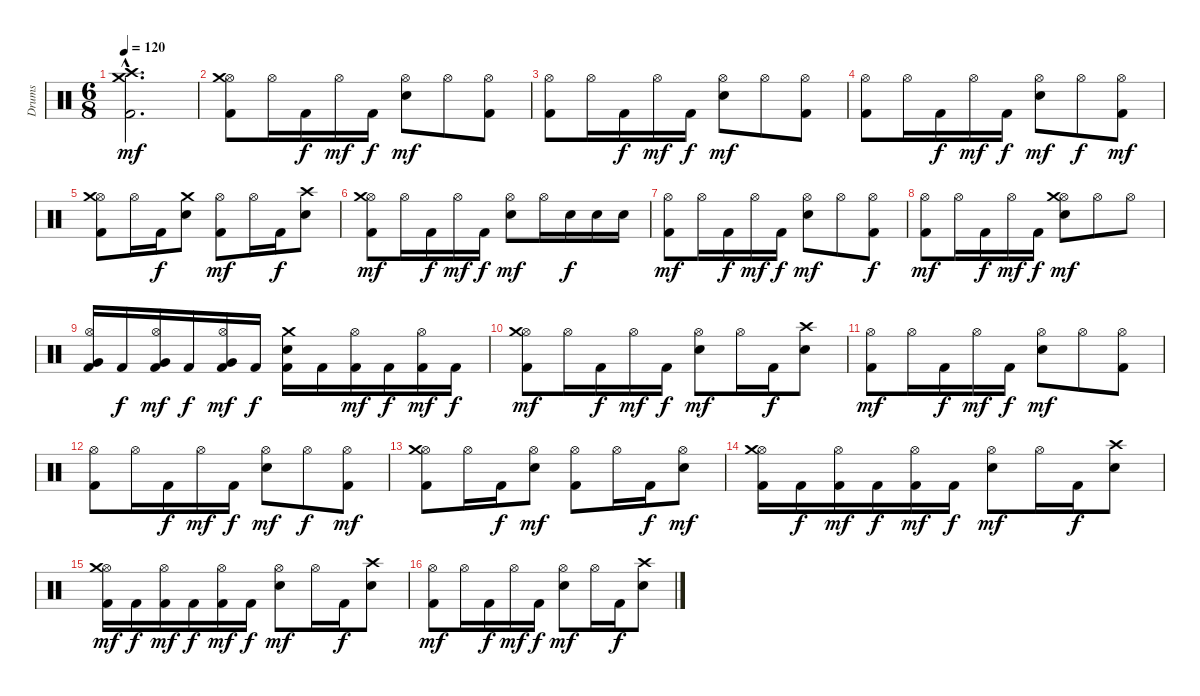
\track ("Drums" "Drums") {instrument percussion}
\staff {score}
\articulation defaults
\ts (6 8)
\tempo 120
\clef neutral
\ks c
("Kick (hit) 2"{hac} "Crash high (hit)"{hac} "Crash medium (hit)"{hac}).2{d dy mf} |
("Kick (hit) 2" "Hi-Hat (open)" "Crash medium (hit)").8 "Hi-Hat (open)".16 "Kick (hit) 2".16{dy f} "Hi-Hat (open)".16{dy mf} "Kick (hit) 2".16{dy f} ("Snare (hit) 2" "Hi-Hat (open)").8{dy mf} "Hi-Hat (open)".8 ("Kick (hit) 2" "Hi-Hat (open)").8 |
("Kick (hit) 2" "Hi-Hat (open)").8 "Hi-Hat (open)".16 "Kick (hit) 2".16{dy f} "Hi-Hat (open)".16{dy mf} "Kick (hit) 2".16{dy f} ("Snare (hit) 2" "Hi-Hat (open)").8{dy mf} "Hi-Hat (open)".8 ("Kick (hit) 2" "Hi-Hat (open)").8 |
("Kick (hit) 2" "Hi-Hat (open)").8 "Hi-Hat (open)".16 "Kick (hit) 2".16{dy f} "Hi-Hat (open)".16{dy mf} "Kick (hit) 2".16{dy f} ("Snare (hit) 2" "Hi-Hat (open)").8{dy mf} "Hi-Hat (open)".8{dy f} ("Kick (hit) 2" "Hi-Hat (open)").8{dy mf} |
("Kick (hit) 2" "Hi-Hat (open)" "Crash medium (hit)").8 "Hi-Hat (open)".16 "Kick (hit) 2".16{dy f} ("Snare (hit) 2" "Crash medium (hit)").8 ("Kick (hit) 2" "Hi-Hat (open)").8{dy mf} "Hi-Hat (open)".16 "Kick (hit) 2".16{dy f} ("Snare (hit) 2" "Crash high (hit)").8 |
("Kick (hit) 2" "Hi-Hat (open)" "Crash medium (hit)").8{dy mf} "Hi-Hat (open)".16 "Kick (hit) 2".16{dy f} "Hi-Hat (open)".16{dy mf} "Kick (hit) 2".16{dy f} ("Snare (hit) 2" "Hi-Hat (open)").8{dy mf} "Hi-Hat (open)".16 "Snare (hit) 2".16{dy f} "Snare (hit) 2".16 "Snare (hit) 2".16 |
("Kick (hit) 2" "Hi-Hat (open)").8{dy mf} "Hi-Hat (open)".16 "Kick (hit) 2".16{dy f} "Hi-Hat (open)".16{dy mf} "Kick (hit) 2".16{dy f} ("Snare (hit) 2" "Hi-Hat (open)").8{dy mf} "Hi-Hat (open)".8 ("Kick (hit) 2" "Hi-Hat (open)").8{dy f} |
("Kick (hit) 2" "Hi-Hat (open)").8{dy mf} "Hi-Hat (open)".16 "Kick (hit) 2".16{dy f} "Hi-Hat (open)".16{dy mf} "Kick (hit) 2".16{dy f} ("Snare (hit) 2" "Hi-Hat (open)" "Crash medium (hit)").8{dy mf} "Hi-Hat (open)".8 "Hi-Hat (open)".8 |
("Kick (hit) 2" "Very Low Tom (hit)" "Hi-Hat (open)").16 "Kick (hit) 2".16{dy f} ("Kick (hit) 2" "Very Low Tom (hit)" "Hi-Hat (open)").16{dy mf} "Kick (hit) 2".16{dy f} ("Kick (hit) 2" "Very Low Tom (hit)" "Hi-Hat (open)").16{dy mf} "Kick (hit) 2".16{dy f} ("Kick (hit) 2" "Snare (hit) 2" "Crash medium (hit)").16 "Kick (hit) 2".16 ("Kick (hit) 2" "Hi-Hat (open)").16{dy mf} "Kick (hit) 2".16{dy f} ("Kick (hit) 2" "Hi-Hat (open)").16{dy mf} "Kick (hit) 2".16{dy f} |
("Kick (hit) 2" "Hi-Hat (open)" "Crash medium (hit)").8{dy mf} "Hi-Hat (open)".16 "Kick (hit) 2".16{dy f} "Hi-Hat (open)".16{dy mf} "Kick (hit) 2".16{dy f} ("Snare (hit) 2" "Hi-Hat (open)").8{dy mf} "Hi-Hat (open)".16 "Kick (hit) 2".16{dy f} ("Snare (hit) 2" "Crash high (hit)").8 |
("Kick (hit) 2" "Hi-Hat (open)").8{dy mf} "Hi-Hat (open)".16 "Kick (hit) 2".16{dy f} "Hi-Hat (open)".16{dy mf} "Kick (hit) 2".16{dy f} ("Snare (hit) 2" "Hi-Hat (open)").8{dy mf} "Hi-Hat (open)".8 ("Kick (hit) 2" "Hi-Hat (open)").8 |
("Kick (hit) 2" "Hi-Hat (open)").8 "Hi-Hat (open)".16 "Kick (hit) 2".16{dy f} "Hi-Hat (open)".16{dy mf} "Kick (hit) 2".16{dy f} ("Snare (hit) 2" "Hi-Hat (open)").8{dy mf} "Hi-Hat (open)".8{dy f} ("Kick (hit) 2" "Hi-Hat (open)").8{dy mf} |
("Kick (hit) 2" "Hi-Hat (open)" "Crash medium (hit)").8 "Hi-Hat (open)".16 "Kick (hit) 2".16{dy f} ("Snare (hit) 2" "Hi-Hat (open)").8{dy mf} ("Kick (hit) 2" "Hi-Hat (open)").8 "Hi-Hat (open)".16 "Kick (hit) 2".16{dy f} ("Snare (hit) 2" "Hi-Hat (open)").8{dy mf} |
("Kick (hit) 2" "Hi-Hat (open)" "Crash medium (hit)").16 "Kick (hit) 2".16{dy f} ("Kick (hit) 2" "Hi-Hat (open)").16{dy mf} "Kick (hit) 2".16{dy f} ("Kick (hit) 2" "Hi-Hat (open)").16{dy mf} "Kick (hit) 2".16{dy f} ("Snare (hit) 2" "Hi-Hat (open)").8{dy mf} "Hi-Hat (open)".16 "Kick (hit) 2".16{dy f} ("Snare (hit) 2" "Crash high (hit)").8 |
("Kick (hit) 2" "Hi-Hat (open)" "Crash medium (hit)").16{dy mf} "Kick (hit) 2".16{dy f} ("Kick (hit) 2" "Hi-Hat (open)").16{dy mf} "Kick (hit) 2".16{dy f} ("Kick (hit) 2" "Hi-Hat (open)").16{dy mf} "Kick (hit) 2".16{dy f} ("Snare (hit) 2" "Hi-Hat (open)").8{dy mf} "Hi-Hat (open)".16 "Kick (hit) 2".16{dy f} ("Snare (hit) 2" "Crash high (hit)").8 |
("Kick (hit) 2" "Hi-Hat (open)").8{dy mf} "Hi-Hat (open)".16 "Kick (hit) 2".16{dy f} "Hi-Hat (open)".16{dy mf} "Kick (hit) 2".16{dy f} ("Snare (hit) 2" "Hi-Hat (open)").8{dy mf} "Hi-Hat (open)".16 "Kick (hit) 2".16{dy f} ("Snare (hit) 2" "Crash high (hit)").8
